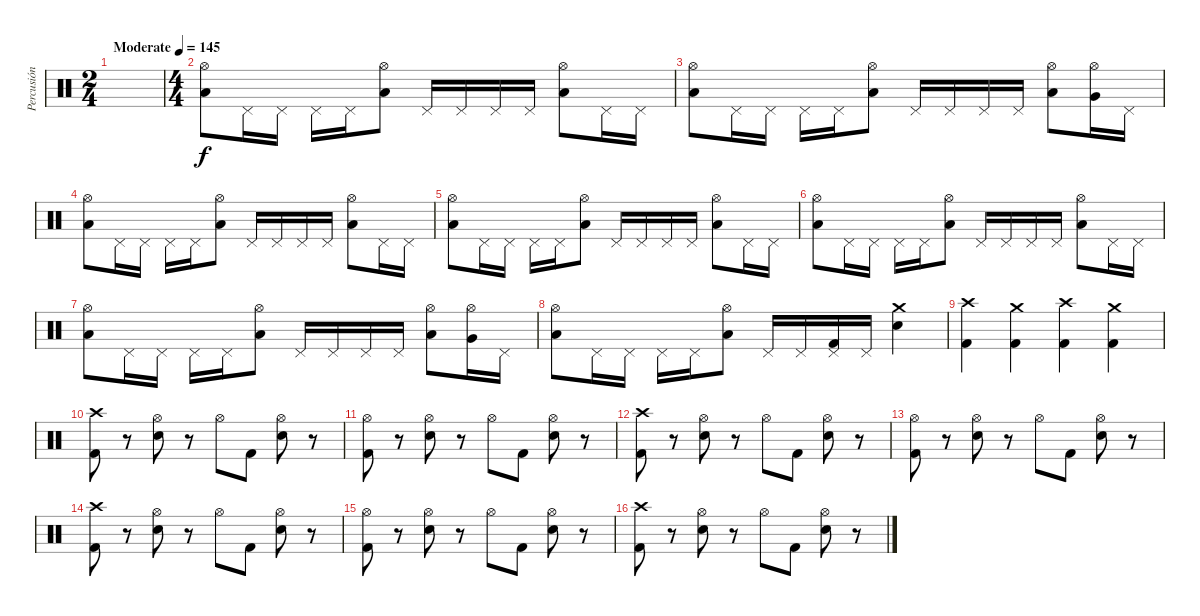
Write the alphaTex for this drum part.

\track ("Percusión" "Percusión") {instrument percussion}
\staff {score}
\articulation defaults
\ts (2 4)
\tempo (145 "Moderate")
\clef neutral
\ks c
|
\ts (4 4)
("Hi-Hat (open)" "Low Tom (hit)").8 "Pedal Hi-Hat (hit)".16 "Pedal Hi-Hat (hit)".16 "Pedal Hi-Hat (hit)".16 "Pedal Hi-Hat (hit)".16 ("Hi-Hat (open)" "Low Tom (hit)").8 "Pedal Hi-Hat (hit)".16 "Pedal Hi-Hat (hit)".16 "Pedal Hi-Hat (hit)".16 "Pedal Hi-Hat (hit)".16 ("Hi-Hat (open)" "Low Tom (hit)").8 "Pedal Hi-Hat (hit)".16 "Pedal Hi-Hat (hit)".16 |
("Hi-Hat (open)" "Low Tom (hit)").8 "Pedal Hi-Hat (hit)".16 "Pedal Hi-Hat (hit)".16 "Pedal Hi-Hat (hit)".16 "Pedal Hi-Hat (hit)".16 ("Hi-Hat (open)" "Low Tom (hit)").8 "Pedal Hi-Hat (hit)".16 "Pedal Hi-Hat (hit)".16 "Pedal Hi-Hat (hit)".16 "Pedal Hi-Hat (hit)".16 ("Hi-Hat (open)" "Low Tom (hit)").8 ("Hi-Hat (open)" "Very Low Tom (hit)").16 "Pedal Hi-Hat (hit)".16 |
("Hi-Hat (open)" "Low Tom (hit)").8 "Pedal Hi-Hat (hit)".16 "Pedal Hi-Hat (hit)".16 "Pedal Hi-Hat (hit)".16 "Pedal Hi-Hat (hit)".16 ("Hi-Hat (open)" "Low Tom (hit)").8 "Pedal Hi-Hat (hit)".16 "Pedal Hi-Hat (hit)".16 "Pedal Hi-Hat (hit)".16 "Pedal Hi-Hat (hit)".16 ("Hi-Hat (open)" "Low Tom (hit)").8 "Pedal Hi-Hat (hit)".16 "Pedal Hi-Hat (hit)".16 |
("Hi-Hat (open)" "Low Tom (hit)").8 "Pedal Hi-Hat (hit)".16 "Pedal Hi-Hat (hit)".16 "Pedal Hi-Hat (hit)".16 "Pedal Hi-Hat (hit)".16 ("Hi-Hat (open)" "Low Tom (hit)").8 "Pedal Hi-Hat (hit)".16 "Pedal Hi-Hat (hit)".16 "Pedal Hi-Hat (hit)".16 "Pedal Hi-Hat (hit)".16 ("Hi-Hat (open)" "Low Tom (hit)").8 "Pedal Hi-Hat (hit)".16 "Pedal Hi-Hat (hit)".16 |
("Hi-Hat (open)" "Low Tom (hit)").8 "Pedal Hi-Hat (hit)".16 "Pedal Hi-Hat (hit)".16 "Pedal Hi-Hat (hit)".16 "Pedal Hi-Hat (hit)".16 ("Hi-Hat (open)" "Low Tom (hit)").8 "Pedal Hi-Hat (hit)".16 "Pedal Hi-Hat (hit)".16 "Pedal Hi-Hat (hit)".16 "Pedal Hi-Hat (hit)".16 ("Hi-Hat (open)" "Low Tom (hit)").8 "Pedal Hi-Hat (hit)".16 "Pedal Hi-Hat (hit)".16 |
("Hi-Hat (open)" "Low Tom (hit)").8 "Pedal Hi-Hat (hit)".16 "Pedal Hi-Hat (hit)".16 "Pedal Hi-Hat (hit)".16 "Pedal Hi-Hat (hit)".16 ("Hi-Hat (open)" "Low Tom (hit)").8 "Pedal Hi-Hat (hit)".16 "Pedal Hi-Hat (hit)".16 "Pedal Hi-Hat (hit)".16 "Pedal Hi-Hat (hit)".16 ("Hi-Hat (open)" "Low Tom (hit)").8 ("Hi-Hat (open)" "Very Low Tom (hit)").16 "Pedal Hi-Hat (hit)".16 |
("Hi-Hat (open)" "Low Tom (hit)").8 "Pedal Hi-Hat (hit)".16 "Pedal Hi-Hat (hit)".16 "Pedal Hi-Hat (hit)".16 "Pedal Hi-Hat (hit)".16 ("Hi-Hat (open)" "Low Tom (hit)").8 "Pedal Hi-Hat (hit)".16 "Pedal Hi-Hat (hit)".16 ("Pedal Hi-Hat (hit)" "Kick (hit) 2").16 "Pedal Hi-Hat (hit)".16 ("Crash medium (hit)" "Electric Snare (hit)").4 |
("Crash high (hit)" "Kick (hit) 2").4 ("Crash medium (hit)" "Kick (hit) 2").4 ("Crash high (hit)" "Kick (hit) 2").4 ("Crash medium (hit)" "Kick (hit) 2").4 |
("Crash high (hit)" "Kick (hit) 2").8 r.8 ("Hi-Hat (open)" "Electric Snare (hit)").8 r.8 "Hi-Hat (open)".8 "Kick (hit) 2".8 ("Hi-Hat (open)" "Electric Snare (hit)").8 r.8 |
("Hi-Hat (open)" "Kick (hit) 2").8 r.8 ("Hi-Hat (open)" "Electric Snare (hit)").8 r.8 "Hi-Hat (open)".8 "Kick (hit) 2".8 ("Hi-Hat (open)" "Electric Snare (hit)").8 r.8 |
("Crash high (hit)" "Kick (hit) 2").8 r.8 ("Hi-Hat (open)" "Electric Snare (hit)").8 r.8 "Hi-Hat (open)".8 "Kick (hit) 2".8 ("Hi-Hat (open)" "Electric Snare (hit)").8 r.8 |
("Hi-Hat (open)" "Kick (hit) 2").8 r.8 ("Hi-Hat (open)" "Electric Snare (hit)").8 r.8 "Hi-Hat (open)".8 "Kick (hit) 2".8 ("Hi-Hat (open)" "Electric Snare (hit)").8 r.8 |
("Crash high (hit)" "Kick (hit) 2").8 r.8 ("Hi-Hat (open)" "Electric Snare (hit)").8 r.8 "Hi-Hat (open)".8 "Kick (hit) 2".8 ("Hi-Hat (open)" "Electric Snare (hit)").8 r.8 |
("Hi-Hat (open)" "Kick (hit) 2").8 r.8 ("Hi-Hat (open)" "Electric Snare (hit)").8 r.8 "Hi-Hat (open)".8 "Kick (hit) 2".8 ("Hi-Hat (open)" "Electric Snare (hit)").8 r.8 |
("Crash high (hit)" "Kick (hit) 2").8 r.8 ("Hi-Hat (open)" "Electric Snare (hit)").8 r.8 "Hi-Hat (open)".8 "Kick (hit) 2".8 ("Hi-Hat (open)" "Electric Snare (hit)").8 r.8
